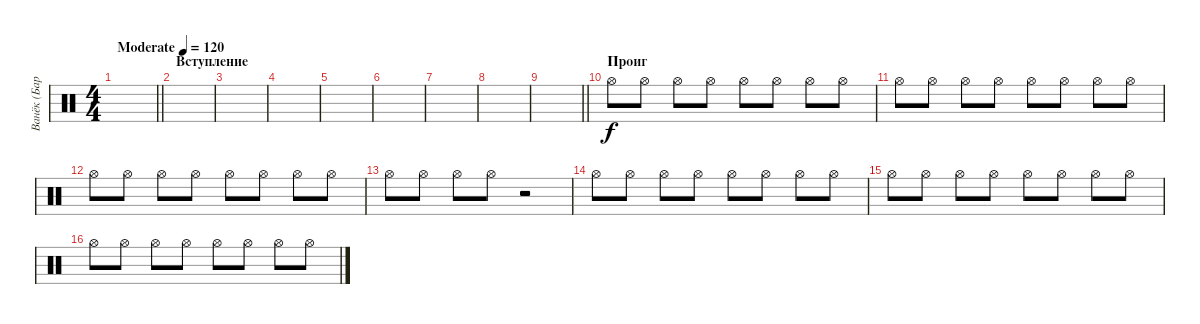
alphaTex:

\track ("Ванёк (Барабанщик)" "Ванёк (Бар") {instrument percussion}
\staff {score}
\articulation defaults
\ts (4 4)
\tempo (120 "Moderate")
\clef neutral
\barLineRight lightlight
\ks c
|
\section ("" "Вступление")
|
|
|
|
|
|
|
\barLineRight lightlight
|
\section ("" "Проиг")
"Hi-Hat (open)".8 "Hi-Hat (open)".8 "Hi-Hat (open)".8 "Hi-Hat (open)".8 "Hi-Hat (open)".8 "Hi-Hat (open)".8 "Hi-Hat (open)".8 "Hi-Hat (open)".8 |
"Hi-Hat (open)".8 "Hi-Hat (open)".8 "Hi-Hat (open)".8 "Hi-Hat (open)".8 "Hi-Hat (open)".8 "Hi-Hat (open)".8 "Hi-Hat (open)".8 "Hi-Hat (open)".8 |
"Hi-Hat (open)".8 "Hi-Hat (open)".8 "Hi-Hat (open)".8 "Hi-Hat (open)".8 "Hi-Hat (open)".8 "Hi-Hat (open)".8 "Hi-Hat (open)".8 "Hi-Hat (open)".8 |
"Hi-Hat (open)".8 "Hi-Hat (open)".8 "Hi-Hat (open)".8 "Hi-Hat (open)".8 r.2 |
"Hi-Hat (open)".8 "Hi-Hat (open)".8 "Hi-Hat (open)".8 "Hi-Hat (open)".8 "Hi-Hat (open)".8 "Hi-Hat (open)".8 "Hi-Hat (open)".8 "Hi-Hat (open)".8 |
"Hi-Hat (open)".8 "Hi-Hat (open)".8 "Hi-Hat (open)".8 "Hi-Hat (open)".8 "Hi-Hat (open)".8 "Hi-Hat (open)".8 "Hi-Hat (open)".8 "Hi-Hat (open)".8 |
"Hi-Hat (open)".8 "Hi-Hat (open)".8 "Hi-Hat (open)".8 "Hi-Hat (open)".8 "Hi-Hat (open)".8 "Hi-Hat (open)".8 "Hi-Hat (open)".8 "Hi-Hat (open)".8
